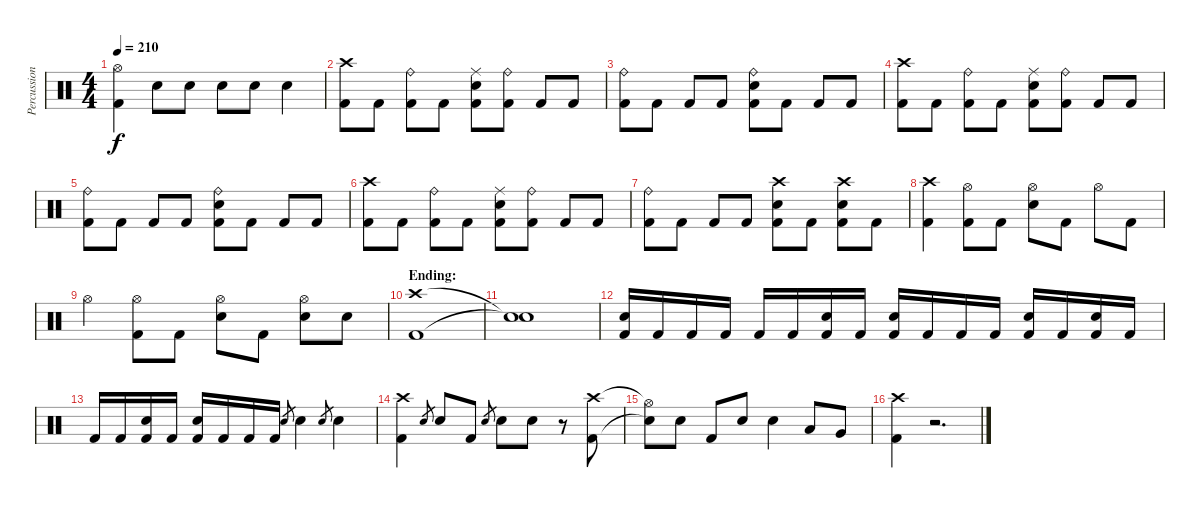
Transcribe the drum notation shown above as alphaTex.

\track ("Percussion" "Percussion") {instrument percussion}
\staff {score}
\articulation defaults
\ts (4 4)
\tempo 210
\clef neutral
\ks c
("Hi-Hat (open)" "Kick (hit) 2").4{dy f} "Snare (hit) 2".8 "Snare (hit) 2".8 "Snare (hit) 2".8 "Snare (hit) 2".8 "Snare (hit) 2".4 |
("Crash high (hit)" "Kick (hit) 2").8 "Kick (hit) 2".8 ("Ride (bell)" "Kick (hit) 2").8 "Kick (hit) 2".8 ("Ride (middle)" "Snare (hit) 2" "Kick (hit) 2").8 ("Ride (bell)" "Kick (hit) 2").8 "Kick (hit) 2".8 "Kick (hit) 2".8 |
("Ride (bell)" "Kick (hit) 2").8 "Kick (hit) 2".8 "Kick (hit) 2".8 "Kick (hit) 2".8 ("Ride (bell)" "Snare (hit) 2" "Kick (hit) 2").8 "Kick (hit) 2".8 "Kick (hit) 2".8 "Kick (hit) 2".8 |
("Crash high (hit)" "Kick (hit) 2").8 "Kick (hit) 2".8 ("Ride (bell)" "Kick (hit) 2").8 "Kick (hit) 2".8 ("Ride (middle)" "Snare (hit) 2" "Kick (hit) 2").8 ("Ride (bell)" "Kick (hit) 2").8 "Kick (hit) 2".8 "Kick (hit) 2".8 |
("Ride (bell)" "Kick (hit) 2").8 "Kick (hit) 2".8 "Kick (hit) 2".8 "Kick (hit) 2".8 ("Ride (bell)" "Snare (hit) 2" "Kick (hit) 2").8 "Kick (hit) 2".8 "Kick (hit) 2".8 "Kick (hit) 2".8 |
("Crash high (hit)" "Kick (hit) 2").8 "Kick (hit) 2".8 ("Ride (bell)" "Kick (hit) 2").8 "Kick (hit) 2".8 ("Ride (middle)" "Snare (hit) 2" "Kick (hit) 2").8 ("Ride (bell)" "Kick (hit) 2").8 "Kick (hit) 2".8 "Kick (hit) 2".8 |
("Ride (bell)" "Kick (hit) 2").8 "Kick (hit) 2".8 "Kick (hit) 2".8 "Kick (hit) 2".8 ("Crash high (hit)" "Snare (hit) 2" "Kick (hit) 2").8 "Kick (hit) 2".8 ("Crash high (hit)" "Snare (hit) 2" "Kick (hit) 2").8 "Kick (hit) 2".8 |
("Crash high (hit)" "Kick (hit) 2").4 ("Hi-Hat (open)" "Kick (hit) 2").8 "Kick (hit) 2".8 ("Hi-Hat (open)" "Snare (hit) 2").8 "Kick (hit) 2".8 "Hi-Hat (open)".8 "Kick (hit) 2".8 |
"Hi-Hat (open)".4 ("Hi-Hat (open)" "Kick (hit) 2").8 "Kick (hit) 2".8 ("Hi-Hat (open)" "Snare (hit) 2").8 "Kick (hit) 2".8 ("Hi-Hat (open)" "Snare (hit) 2").8 "Snare (hit) 2".8 |
\section ("" "Ending:")
("Crash high (hit)" "Kick (hit) 2").1 |
("Snare (hit)"{t} "Snare (hit)"{t}).1 |
("Snare (hit) 2" "Kick (hit) 2").16 "Kick (hit) 2".16 "Kick (hit) 2".16 "Kick (hit) 2".16 "Kick (hit) 2".16 "Kick (hit) 2".16 ("Snare (hit) 2" "Kick (hit) 2").16 "Kick (hit) 2".16 ("Snare (hit) 2" "Kick (hit) 2").16 "Kick (hit) 2".16 "Kick (hit) 2".16 "Kick (hit) 2".16 ("Snare (hit) 2" "Kick (hit) 2").16 "Kick (hit) 2".16 ("Snare (hit) 2" "Kick (hit) 2").16 "Kick (hit) 2".16 |
"Kick (hit) 2".16 "Kick (hit) 2".16 ("Snare (hit) 2" "Kick (hit) 2").16 "Kick (hit) 2".16 ("Snare (hit) 2" "Kick (hit) 2").16 "Kick (hit) 2".16 "Kick (hit) 2".16 "Kick (hit) 2".16 "Snare (hit) 2".8{gr} "Snare (hit) 2".4 "Snare (hit) 2".8{gr} "Snare (hit) 2".4 |
("Crash high (hit)" "Kick (hit) 2").4 "Snare (hit) 2".8{gr} "Snare (hit) 2".8 "Kick (hit) 2".8 "Snare (hit) 2".8{gr} "Snare (hit) 2".8 "Snare (hit) 2".8 r.8 ("Crash high (hit)" "Kick (hit) 2").8 |
("Hi-Hat (open)"{t} "Snare (hit)"{t}).8 "Snare (hit) 2".8 "Kick (hit) 2".8 "Snare (hit) 2".8 "Snare (hit) 2".4 "Low Tom (hit)".8 "Very Low Tom (hit)".8 |
("Crash high (hit)" "Kick (hit) 2").4 r.2{d}
